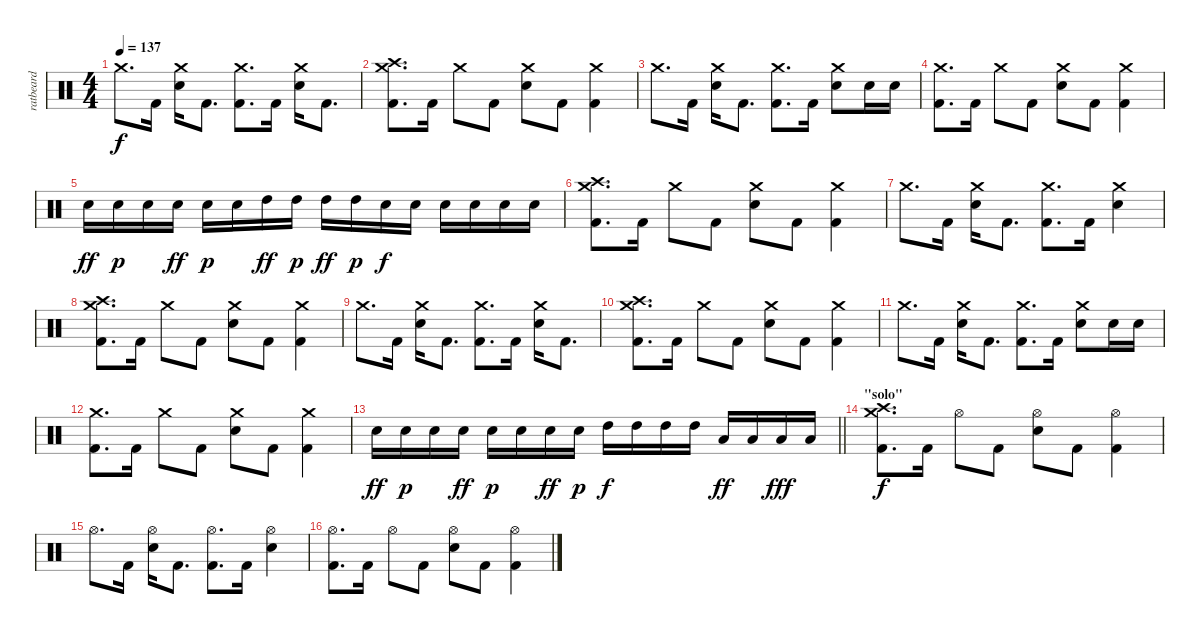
\track ("ratbeard" "ratbeard") {instrument percussion}
\staff {score}
\articulation defaults
\ts (4 4)
\tempo 137
\clef neutral
\ks c "Crash medium (hit)".8{d dy f} "Kick (hit) 2".16
("Crash medium (hit)" "Electric Snare (hit)").16 "Kick (hit) 2".8{d} ("Crash medium (hit)" "Kick (hit) 2").8{d} "Kick (hit) 2".16 ("Crash medium (hit)" "Electric Snare (hit)").16 "Kick (hit) 2".8{d} |
("Crash high (hit)" "Crash medium (hit)" "Kick (hit) 2").8{d} "Kick (hit) 2".16 "Crash medium (hit)".8 "Kick (hit) 2".8 ("Crash medium (hit)" "Electric Snare (hit)").8 "Kick (hit) 2".8 ("Crash medium (hit)" "Kick (hit) 2").4 |
"Crash medium (hit)".8{d} "Kick (hit) 2".16 ("Crash medium (hit)" "Electric Snare (hit)").16 "Kick (hit) 2".8{d} ("Crash medium (hit)" "Kick (hit) 2").8{d} "Kick (hit) 2".16 ("Crash medium (hit)" "Electric Snare (hit)").8 "Electric Snare (hit)".16 "Electric Snare (hit)".16 |
("Crash medium (hit)" "Kick (hit) 2").8{d} "Kick (hit) 2".16 "Crash medium (hit)".8 "Kick (hit) 2".8 ("Crash medium (hit)" "Electric Snare (hit)").8 "Kick (hit) 2".8 ("Crash medium (hit)" "Kick (hit) 2").4 |
"Electric Snare (hit)".16{dy ff} "Electric Snare (hit)".16{dy p} "Electric Snare (hit)".16 "Electric Snare (hit)".16{dy ff} "Electric Snare (hit)".16{dy p} "Electric Snare (hit)".16 "High Tom (hit)".16{dy ff} "High Tom (hit)".16{dy p} "High Tom (hit)".16{dy ff} "High Tom (hit)".16{dy p} "Electric Snare (hit)".16{dy f} "Electric Snare (hit)".16 "Electric Snare (hit)".16 "Electric Snare (hit)".16 "Electric Snare (hit)".16 "Electric Snare (hit)".16 |
("Crash high (hit)" "Crash medium (hit)" "Kick (hit) 2").8{d} "Kick (hit) 2".16 "Crash medium (hit)".8 "Kick (hit) 2".8 ("Crash medium (hit)" "Electric Snare (hit)").8 "Kick (hit) 2".8 ("Crash medium (hit)" "Kick (hit) 2").4 |
"Crash medium (hit)".8{d} "Kick (hit) 2".16 ("Crash medium (hit)" "Electric Snare (hit)").16 "Kick (hit) 2".8{d} ("Crash medium (hit)" "Kick (hit) 2").8{d} "Kick (hit) 2".16 ("Crash medium (hit)" "Electric Snare (hit)").4 |
("Crash high (hit)" "Crash medium (hit)" "Kick (hit) 2").8{d} "Kick (hit) 2".16 "Crash medium (hit)".8 "Kick (hit) 2".8 ("Crash medium (hit)" "Electric Snare (hit)").8 "Kick (hit) 2".8 ("Crash medium (hit)" "Kick (hit) 2").4 |
"Crash medium (hit)".8{d} "Kick (hit) 2".16 ("Crash medium (hit)" "Electric Snare (hit)").16 "Kick (hit) 2".8{d} ("Crash medium (hit)" "Kick (hit) 2").8{d} "Kick (hit) 2".16 ("Crash medium (hit)" "Electric Snare (hit)").16 "Kick (hit) 2".8{d} |
("Crash high (hit)" "Crash medium (hit)" "Kick (hit) 2").8{d} "Kick (hit) 2".16 "Crash medium (hit)".8 "Kick (hit) 2".8 ("Crash medium (hit)" "Electric Snare (hit)").8 "Kick (hit) 2".8 ("Crash medium (hit)" "Kick (hit) 2").4 |
"Crash medium (hit)".8{d} "Kick (hit) 2".16 ("Crash medium (hit)" "Electric Snare (hit)").16 "Kick (hit) 2".8{d} ("Crash medium (hit)" "Kick (hit) 2").8{d} "Kick (hit) 2".16 ("Crash medium (hit)" "Electric Snare (hit)").8 "Electric Snare (hit)".16 "Electric Snare (hit)".16 |
("Crash medium (hit)" "Kick (hit) 2").8{d} "Kick (hit) 2".16 "Crash medium (hit)".8 "Kick (hit) 2".8 ("Crash medium (hit)" "Electric Snare (hit)").8 "Kick (hit) 2".8 ("Crash medium (hit)" "Kick (hit) 2").4 |
\barLineRight lightlight "Electric Snare (hit)".16{dy ff} "Electric Snare (hit)".16{dy p} "Electric Snare (hit)".16 "Electric Snare (hit)".16{dy ff} "Electric Snare (hit)".16{dy p} "Electric Snare (hit)".16 "Electric Snare (hit)".16{dy ff} "Electric Snare (hit)".16{dy p} "High Tom (hit)".16{dy f} "High Tom (hit)".16 "High Tom (hit)".16 "High Tom (hit)".16 "Low Floor Tom (hit)".16{dy ff} "Low Floor Tom (hit)".16 "Low Floor Tom (hit)".16{dy fff} "Low Floor Tom (hit)".16
|
\section ("" "\"solo\"")
("Crash high (hit)" "Crash medium (hit)" "Kick (hit) 2").8{d dy f} "Kick (hit) 2".16 "Hi-Hat (open)".8 "Kick (hit) 2".8 ("Hi-Hat (open)" "Electric Snare (hit)").8 "Kick (hit) 2".8 ("Hi-Hat (open)" "Kick (hit) 2").4 |
"Hi-Hat (open)".8{d} "Kick (hit) 2".16 ("Hi-Hat (open)" "Electric Snare (hit)").16 "Kick (hit) 2".8{d} ("Hi-Hat (open)" "Kick (hit) 2").8{d} "Kick (hit) 2".16 ("Hi-Hat (open)" "Electric Snare (hit)").4 |
("Hi-Hat (open)" "Kick (hit) 2").8{d} "Kick (hit) 2".16 "Hi-Hat (open)".8 "Kick (hit) 2".8 ("Hi-Hat (open)" "Electric Snare (hit)").8 "Kick (hit) 2".8 ("Hi-Hat (open)" "Kick (hit) 2").4
